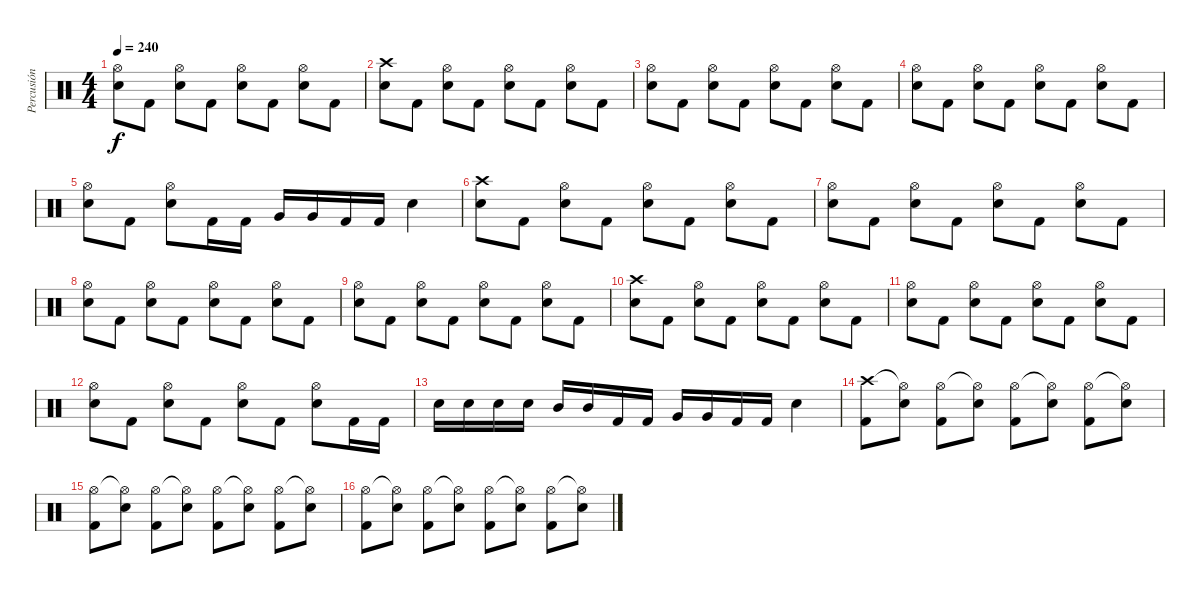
\track ("Percusión" "Percusión") {instrument percussion}
\staff {score}
\articulation defaults
\ts (4 4)
\tempo 240
\clef neutral
\ks c
("Snare (hit) 2" "Hi-Hat (open)").8{dy f} "Kick (hit) 2".8 ("Snare (hit) 2" "Hi-Hat (open)").8 "Kick (hit) 2".8 ("Snare (hit) 2" "Hi-Hat (open)").8 "Kick (hit) 2".8 ("Snare (hit) 2" "Hi-Hat (open)").8 "Kick (hit) 2".8 |
("Crash high (hit)" "Snare (hit) 2").8 "Kick (hit) 2".8 ("Snare (hit) 2" "Hi-Hat (open)").8 "Kick (hit) 2".8 ("Snare (hit) 2" "Hi-Hat (open)").8 "Kick (hit) 2".8 ("Snare (hit) 2" "Hi-Hat (open)").8 "Kick (hit) 2".8 |
("Snare (hit) 2" "Hi-Hat (open)").8 "Kick (hit) 2".8 ("Snare (hit) 2" "Hi-Hat (open)").8 "Kick (hit) 2".8 ("Snare (hit) 2" "Hi-Hat (open)").8 "Kick (hit) 2".8 ("Snare (hit) 2" "Hi-Hat (open)").8 "Kick (hit) 2".8 |
("Snare (hit) 2" "Hi-Hat (open)").8 "Kick (hit) 2".8 ("Snare (hit) 2" "Hi-Hat (open)").8 "Kick (hit) 2".8 ("Snare (hit) 2" "Hi-Hat (open)").8 "Kick (hit) 2".8 ("Snare (hit) 2" "Hi-Hat (open)").8 "Kick (hit) 2".8 |
("Snare (hit) 2" "Hi-Hat (open)").8 "Kick (hit) 2".8 ("Snare (hit) 2" "Hi-Hat (open)").8 "Kick (hit) 2".16 "Kick (hit) 2".16 "Very Low Tom (hit)".16 "Very Low Tom (hit)".16 "Kick (hit) 2".16 "Kick (hit) 2".16 "Snare (hit) 2".4 |
("Crash high (hit)" "Snare (hit) 2").8 "Kick (hit) 2".8 ("Snare (hit) 2" "Hi-Hat (open)").8 "Kick (hit) 2".8 ("Snare (hit) 2" "Hi-Hat (open)").8 "Kick (hit) 2".8 ("Snare (hit) 2" "Hi-Hat (open)").8 "Kick (hit) 2".8 |
("Snare (hit) 2" "Hi-Hat (open)").8 "Kick (hit) 2".8 ("Snare (hit) 2" "Hi-Hat (open)").8 "Kick (hit) 2".8 ("Snare (hit) 2" "Hi-Hat (open)").8 "Kick (hit) 2".8 ("Snare (hit) 2" "Hi-Hat (open)").8 "Kick (hit) 2".8 |
("Snare (hit) 2" "Hi-Hat (open)").8 "Kick (hit) 2".8 ("Snare (hit) 2" "Hi-Hat (open)").8 "Kick (hit) 2".8 ("Snare (hit) 2" "Hi-Hat (open)").8 "Kick (hit) 2".8 ("Snare (hit) 2" "Hi-Hat (open)").8 "Kick (hit) 2".8 |
("Snare (hit) 2" "Hi-Hat (open)").8 "Kick (hit) 2".8 ("Snare (hit) 2" "Hi-Hat (open)").8 "Kick (hit) 2".8 ("Snare (hit) 2" "Hi-Hat (open)").8 "Kick (hit) 2".8 ("Snare (hit) 2" "Hi-Hat (open)").8 "Kick (hit) 2".8 |
("Crash high (hit)" "Snare (hit) 2").8 "Kick (hit) 2".8 ("Snare (hit) 2" "Hi-Hat (open)").8 "Kick (hit) 2".8 ("Snare (hit) 2" "Hi-Hat (open)").8 "Kick (hit) 2".8 ("Snare (hit) 2" "Hi-Hat (open)").8 "Kick (hit) 2".8 |
("Snare (hit) 2" "Hi-Hat (open)").8 "Kick (hit) 2".8 ("Snare (hit) 2" "Hi-Hat (open)").8 "Kick (hit) 2".8 ("Snare (hit) 2" "Hi-Hat (open)").8 "Kick (hit) 2".8 ("Snare (hit) 2" "Hi-Hat (open)").8 "Kick (hit) 2".8 |
("Snare (hit) 2" "Hi-Hat (open)").8 "Kick (hit) 2".8 ("Snare (hit) 2" "Hi-Hat (open)").8 "Kick (hit) 2".8 ("Snare (hit) 2" "Hi-Hat (open)").8 "Kick (hit) 2".8 ("Snare (hit) 2" "Hi-Hat (open)").8 "Kick (hit) 2".16 "Kick (hit) 2".16 |
"Snare (hit) 2".16 "Snare (hit) 2".16 "Snare (hit) 2".16 "Snare (hit) 2".16 "Mid Tom (hit)".16 "Mid Tom (hit)".16 "Kick (hit) 2".16 "Kick (hit) 2".16 "Very Low Tom (hit)".16 "Very Low Tom (hit)".16 "Kick (hit) 2".16 "Kick (hit) 2".16 "Snare (hit) 2".4 |
("Crash high (hit)" "Kick (hit) 2").8 ("Hi-Hat (open)"{t} "Snare (hit) 2").8 ("Hi-Hat (open)" "Kick (hit) 2").8 ("Hi-Hat (open)"{t} "Snare (hit) 2").8 ("Hi-Hat (open)" "Kick (hit) 2").8 ("Hi-Hat (open)"{t} "Snare (hit) 2").8 ("Hi-Hat (open)" "Kick (hit) 2").8 ("Hi-Hat (open)"{t} "Snare (hit) 2").8 |
("Hi-Hat (open)" "Kick (hit) 2").8 ("Hi-Hat (open)"{t} "Snare (hit) 2").8 ("Hi-Hat (open)" "Kick (hit) 2").8 ("Hi-Hat (open)"{t} "Snare (hit) 2").8 ("Hi-Hat (open)" "Kick (hit) 2").8 ("Hi-Hat (open)"{t} "Snare (hit) 2").8 ("Hi-Hat (open)" "Kick (hit) 2").8 ("Hi-Hat (open)"{t} "Snare (hit) 2").8 |
("Hi-Hat (open)" "Kick (hit) 2").8 ("Hi-Hat (open)"{t} "Snare (hit) 2").8 ("Hi-Hat (open)" "Kick (hit) 2").8 ("Hi-Hat (open)"{t} "Snare (hit) 2").8 ("Hi-Hat (open)" "Kick (hit) 2").8 ("Hi-Hat (open)"{t} "Snare (hit) 2").8 ("Hi-Hat (open)" "Kick (hit) 2").8 ("Hi-Hat (open)"{t} "Snare (hit) 2").8
